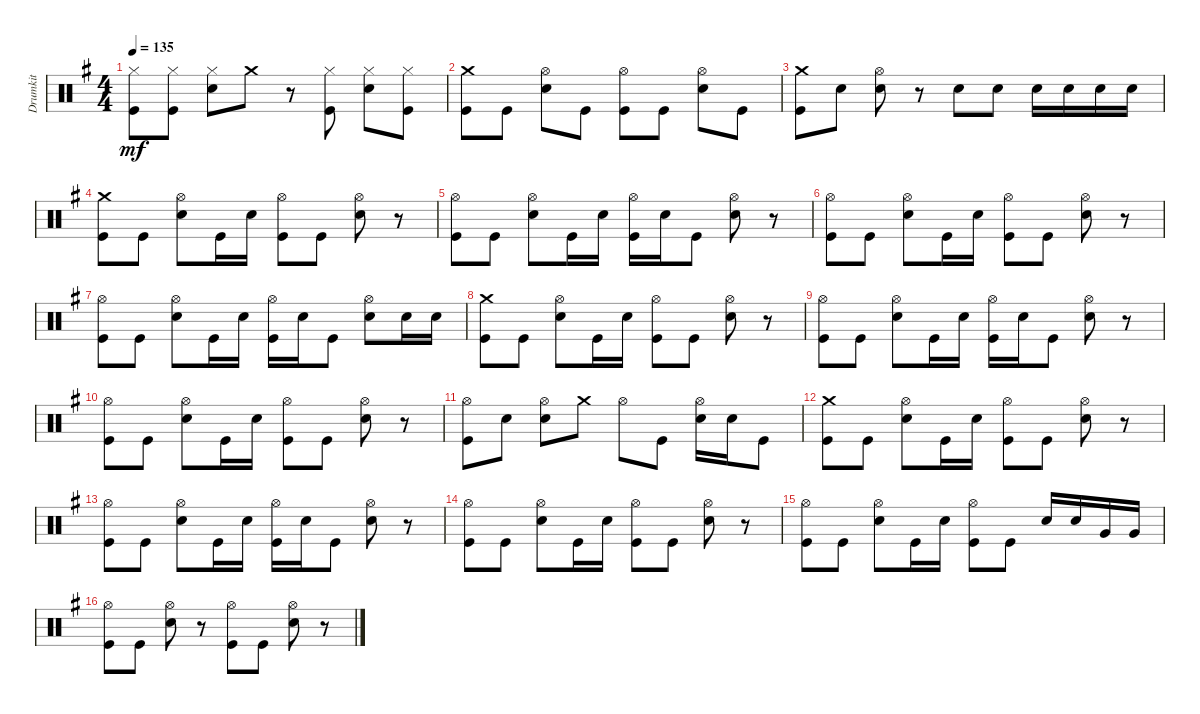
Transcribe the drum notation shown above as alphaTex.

\track ("Drumkit" "Drumkit") {instrument percussion}
\staff {score}
\articulation defaults
\ts (4 4)
\tempo 135
\clef neutral
\ks g
("Kick (hit)" "Hi-Hat (closed)").8{dy mf} ("Kick (hit)" "Hi-Hat (closed)").8 ("Snare (hit) 2" "Hi-Hat (closed)").8 "Crash medium (hit)".8 r.8 ("Kick (hit)" "Hi-Hat (closed)").8 ("Snare (hit) 2" "Hi-Hat (closed)").8 ("Kick (hit)" "Hi-Hat (closed)").8 |
("Kick (hit)" "Crash medium (hit)").8 "Kick (hit)".8 ("Snare (hit) 2" "Hi-Hat (open)").8 "Kick (hit)".8 ("Kick (hit)" "Hi-Hat (open)").8 "Kick (hit)".8 ("Hi-Hat (open)" "Snare (hit) 2").8 "Kick (hit)".8 |
("Kick (hit)" "Crash medium (hit)").8 "Snare (hit) 2".8 ("Snare (hit) 2" "Hi-Hat (open)").8 r.8 "Snare (hit) 2".8 "Snare (hit) 2".8 "Snare (hit) 2".16 "Snare (hit) 2".16 "Snare (hit) 2".16 "Snare (hit) 2".16 |
("Crash medium (hit)" "Kick (hit)").8 "Kick (hit)".8 ("Hi-Hat (open)" "Snare (hit) 2").8 "Kick (hit)".16 "Snare (hit) 2".16 ("Hi-Hat (open)" "Kick (hit)").8 "Kick (hit)".8 ("Hi-Hat (open)" "Snare (hit) 2").8 r.8 |
("Hi-Hat (open)" "Kick (hit)").8 "Kick (hit)".8 ("Hi-Hat (open)" "Snare (hit) 2").8 "Kick (hit)".16 "Snare (hit) 2".16 ("Hi-Hat (open)" "Kick (hit)").16 "Snare (hit) 2".16 "Kick (hit)".8 ("Hi-Hat (open)" "Snare (hit) 2").8 r.8 |
("Kick (hit)" "Hi-Hat (open)").8 "Kick (hit)".8 ("Hi-Hat (open)" "Snare (hit) 2").8 "Kick (hit)".16 "Snare (hit) 2".16 ("Hi-Hat (open)" "Kick (hit)").8 "Kick (hit)".8 ("Hi-Hat (open)" "Snare (hit) 2").8 r.8 |
("Hi-Hat (open)" "Kick (hit)").8 "Kick (hit)".8 ("Hi-Hat (open)" "Snare (hit) 2").8 "Kick (hit)".16 "Snare (hit) 2".16 ("Hi-Hat (open)" "Kick (hit)").16 "Snare (hit) 2".16 "Kick (hit)".8 ("Hi-Hat (open)" "Snare (hit) 2").8 "Snare (hit) 2".16 "Snare (hit) 2".16 |
("Kick (hit)" "Crash medium (hit)").8 "Kick (hit)".8 ("Hi-Hat (open)" "Snare (hit) 2").8 "Kick (hit)".16 "Snare (hit) 2".16 ("Hi-Hat (open)" "Kick (hit)").8 "Kick (hit)".8 ("Hi-Hat (open)" "Snare (hit) 2").8 r.8 |
("Hi-Hat (open)" "Kick (hit)").8 "Kick (hit)".8 ("Hi-Hat (open)" "Snare (hit) 2").8 "Kick (hit)".16 "Snare (hit) 2".16 ("Hi-Hat (open)" "Kick (hit)").16 "Snare (hit) 2".16 "Kick (hit)".8 ("Hi-Hat (open)" "Snare (hit) 2").8 r.8 |
("Kick (hit)" "Hi-Hat (open)").8 "Kick (hit)".8 ("Hi-Hat (open)" "Snare (hit) 2").8 "Kick (hit)".16 "Snare (hit) 2".16 ("Hi-Hat (open)" "Kick (hit)").8 "Kick (hit)".8 ("Hi-Hat (open)" "Snare (hit) 2").8 r.8 |
("Kick (hit)" "Hi-Hat (open)").8 "Snare (hit) 2".8 ("Snare (hit) 2" "Hi-Hat (open)").8 "Crash medium (hit)".8 "Hi-Hat (open)".8 "Kick (hit)".8 ("Snare (hit) 2" "Hi-Hat (open)").16 "Snare (hit) 2".16 "Kick (hit)".8 |
("Kick (hit)" "Crash medium (hit)").8 "Kick (hit)".8 ("Hi-Hat (open)" "Snare (hit) 2").8 "Kick (hit)".16 "Snare (hit) 2".16 ("Hi-Hat (open)" "Kick (hit)").8 "Kick (hit)".8 ("Hi-Hat (open)" "Snare (hit) 2").8 r.8 |
("Hi-Hat (open)" "Kick (hit)").8 "Kick (hit)".8 ("Hi-Hat (open)" "Snare (hit) 2").8 "Kick (hit)".16 "Snare (hit) 2".16 ("Hi-Hat (open)" "Kick (hit)").16 "Snare (hit) 2".16 "Kick (hit)".8 ("Hi-Hat (open)" "Snare (hit) 2").8 r.8 |
("Kick (hit)" "Hi-Hat (open)").8 "Kick (hit)".8 ("Hi-Hat (open)" "Snare (hit) 2").8 "Kick (hit)".16 "Snare (hit) 2".16 ("Hi-Hat (open)" "Kick (hit)").8 "Kick (hit)".8 ("Hi-Hat (open)" "Snare (hit) 2").8 r.8 |
("Kick (hit)" "Hi-Hat (open)").8 "Kick (hit)".8 ("Hi-Hat (open)" "Snare (hit) 2").8 "Kick (hit)".16 "Snare (hit) 2".16 ("Hi-Hat (open)" "Kick (hit)").8 "Kick (hit)".8 "Snare (hit) 2".16 "Snare (hit) 2".16 "Very Low Tom (hit)".16 "Very Low Tom (hit)".16 |
("Kick (hit)" "Hi-Hat (open)").8 "Kick (hit)".8 ("Snare (hit) 2" "Hi-Hat (open)").8 r.8 ("Kick (hit)" "Hi-Hat (open)").8 "Kick (hit)".8 ("Snare (hit) 2" "Hi-Hat (open)").8 r.8
